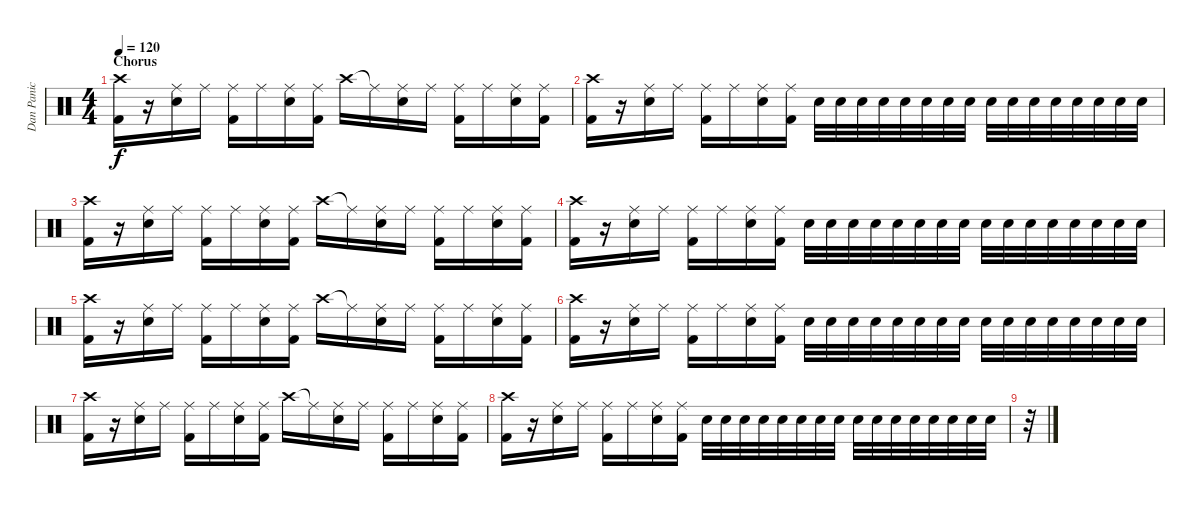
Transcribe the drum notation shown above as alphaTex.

\track ("Dan Panic" "Dan Panic") {instrument percussion}
\staff {score}
\articulation defaults
\ts (4 4)
\section ("" "Chorus")
\tempo 120
\clef neutral
\ks c
("Crash high (hit)" "Kick (hit) 2").16{dy f} r.16 ("Ride (middle)" "Electric Snare (hit)").16 "Ride (middle)".16 ("Ride (middle)" "Kick (hit) 2").16 "Ride (middle)".16 ("Ride (middle)" "Electric Snare (hit)").16 ("Ride (middle)" "Kick (hit) 2").16 "Crash high (hit)".16 "Ride (middle)"{t}.16 ("Ride (middle)" "Electric Snare (hit)").16 "Ride (middle)".16 ("Ride (middle)" "Kick (hit) 2").16 "Ride (middle)".16 ("Ride (middle)" "Electric Snare (hit)").16 ("Ride (middle)" "Kick (hit) 2").16 |
("Crash high (hit)" "Kick (hit) 2").16 r.16 ("Ride (middle)" "Electric Snare (hit)").16 "Ride (middle)".16 ("Ride (middle)" "Kick (hit) 2").16 "Ride (middle)".16 ("Ride (middle)" "Electric Snare (hit)").16 ("Ride (middle)" "Kick (hit) 2").16 "Electric Snare (hit)".32 "Electric Snare (hit)".32 "Electric Snare (hit)".32 "Electric Snare (hit)".32 "Electric Snare (hit)".32 "Electric Snare (hit)".32 "Electric Snare (hit)".32 "Electric Snare (hit)".32 "Electric Snare (hit)".32 "Electric Snare (hit)".32 "Electric Snare (hit)".32 "Electric Snare (hit)".32 "Electric Snare (hit)".32 "Electric Snare (hit)".32 "Electric Snare (hit)".32 "Electric Snare (hit)".32 |
("Crash high (hit)" "Kick (hit) 2").16 r.16 ("Ride (middle)" "Electric Snare (hit)").16 "Ride (middle)".16 ("Ride (middle)" "Kick (hit) 2").16 "Ride (middle)".16 ("Ride (middle)" "Electric Snare (hit)").16 ("Ride (middle)" "Kick (hit) 2").16 "Crash high (hit)".16 "Ride (middle)"{t}.16 ("Ride (middle)" "Electric Snare (hit)").16 "Ride (middle)".16 ("Ride (middle)" "Kick (hit) 2").16 "Ride (middle)".16 ("Ride (middle)" "Electric Snare (hit)").16 ("Ride (middle)" "Kick (hit) 2").16 |
("Crash high (hit)" "Kick (hit) 2").16 r.16 ("Ride (middle)" "Electric Snare (hit)").16 "Ride (middle)".16 ("Ride (middle)" "Kick (hit) 2").16 "Ride (middle)".16 ("Ride (middle)" "Electric Snare (hit)").16 ("Ride (middle)" "Kick (hit) 2").16 "Electric Snare (hit)".32 "Electric Snare (hit)".32 "Electric Snare (hit)".32 "Electric Snare (hit)".32 "Electric Snare (hit)".32 "Electric Snare (hit)".32 "Electric Snare (hit)".32 "Electric Snare (hit)".32 "Electric Snare (hit)".32 "Electric Snare (hit)".32 "Electric Snare (hit)".32 "Electric Snare (hit)".32 "Electric Snare (hit)".32 "Electric Snare (hit)".32 "Electric Snare (hit)".32 "Electric Snare (hit)".32 |
("Crash high (hit)" "Kick (hit) 2").16 r.16 ("Ride (middle)" "Electric Snare (hit)").16 "Ride (middle)".16 ("Ride (middle)" "Kick (hit) 2").16 "Ride (middle)".16 ("Ride (middle)" "Electric Snare (hit)").16 ("Ride (middle)" "Kick (hit) 2").16 "Crash high (hit)".16 "Ride (middle)"{t}.16 ("Ride (middle)" "Electric Snare (hit)").16 "Ride (middle)".16 ("Ride (middle)" "Kick (hit) 2").16 "Ride (middle)".16 ("Ride (middle)" "Electric Snare (hit)").16 ("Ride (middle)" "Kick (hit) 2").16 |
("Crash high (hit)" "Kick (hit) 2").16 r.16 ("Ride (middle)" "Electric Snare (hit)").16 "Ride (middle)".16 ("Ride (middle)" "Kick (hit) 2").16 "Ride (middle)".16 ("Ride (middle)" "Electric Snare (hit)").16 ("Ride (middle)" "Kick (hit) 2").16 "Electric Snare (hit)".32 "Electric Snare (hit)".32 "Electric Snare (hit)".32 "Electric Snare (hit)".32 "Electric Snare (hit)".32 "Electric Snare (hit)".32 "Electric Snare (hit)".32 "Electric Snare (hit)".32 "Electric Snare (hit)".32 "Electric Snare (hit)".32 "Electric Snare (hit)".32 "Electric Snare (hit)".32 "Electric Snare (hit)".32 "Electric Snare (hit)".32 "Electric Snare (hit)".32 "Electric Snare (hit)".32 |
("Crash high (hit)" "Kick (hit) 2").16 r.16 ("Ride (middle)" "Electric Snare (hit)").16 "Ride (middle)".16 ("Ride (middle)" "Kick (hit) 2").16 "Ride (middle)".16 ("Ride (middle)" "Electric Snare (hit)").16 ("Ride (middle)" "Kick (hit) 2").16 "Crash high (hit)".16 "Ride (middle)"{t}.16 ("Ride (middle)" "Electric Snare (hit)").16 "Ride (middle)".16 ("Ride (middle)" "Kick (hit) 2").16 "Ride (middle)".16 ("Ride (middle)" "Electric Snare (hit)").16 ("Ride (middle)" "Kick (hit) 2").16 |
("Crash high (hit)" "Kick (hit) 2").16 r.16 ("Ride (middle)" "Electric Snare (hit)").16 "Ride (middle)".16 ("Ride (middle)" "Kick (hit) 2").16 "Ride (middle)".16 ("Ride (middle)" "Electric Snare (hit)").16 ("Ride (middle)" "Kick (hit) 2").16 "Electric Snare (hit)".32 "Electric Snare (hit)".32 "Electric Snare (hit)".32 "Electric Snare (hit)".32 "Electric Snare (hit)".32 "Electric Snare (hit)".32 "Electric Snare (hit)".32 "Electric Snare (hit)".32 "Electric Snare (hit)".32 "Electric Snare (hit)".32 "Electric Snare (hit)".32 "Electric Snare (hit)".32 "Electric Snare (hit)".32 "Electric Snare (hit)".32 "Electric Snare (hit)".32 "Electric Snare (hit)".32 |
r.32
